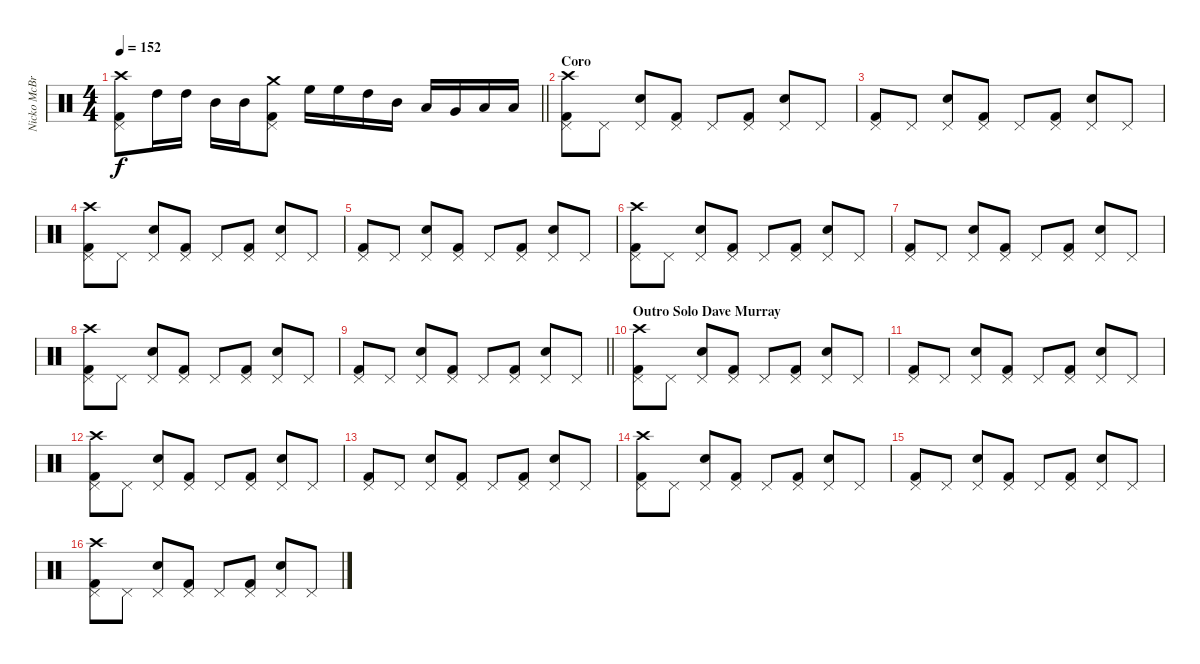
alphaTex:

\track ("Nicko McBrain" "Nicko McBr") {instrument percussion}
\staff {score}
\articulation defaults
\ts (4 4)
\tempo 152
\clef neutral
\barLineRight lightlight
\ks c
("Kick (hit) 2" "Pedal Hi-Hat (hit)" "Crash high (hit)").8{dy f} "High Tom (hit)".16 "High Tom (hit)".16 "Mid Tom (hit)".16 "Mid Tom (hit)".16 ("Kick (hit) 2" "Pedal Hi-Hat (hit)" "Crash medium (hit)").8 "High Floor Tom (hit)".16 "High Floor Tom (hit)".16 "High Tom (hit)".16 "Mid Tom (hit)".16 "Low Tom (hit)".16 "Very Low Tom (hit)".16 "Low Floor Tom (hit)".16 "Low Floor Tom (hit)".16 |
\section ("" "Coro")
("Kick (hit) 2" "Pedal Hi-Hat (hit)" "Crash high (hit)").8 "Pedal Hi-Hat (hit)".8 ("Snare (hit) 2" "Pedal Hi-Hat (hit)").8 ("Kick (hit) 2" "Pedal Hi-Hat (hit)").8 "Pedal Hi-Hat (hit)".8 ("Kick (hit) 2" "Pedal Hi-Hat (hit)").8 ("Snare (hit) 2" "Pedal Hi-Hat (hit)").8 "Pedal Hi-Hat (hit)".8 |
("Kick (hit) 2" "Pedal Hi-Hat (hit)").8 "Pedal Hi-Hat (hit)".8 ("Snare (hit) 2" "Pedal Hi-Hat (hit)").8 ("Kick (hit) 2" "Pedal Hi-Hat (hit)").8 "Pedal Hi-Hat (hit)".8 ("Kick (hit) 2" "Pedal Hi-Hat (hit)").8 ("Snare (hit) 2" "Pedal Hi-Hat (hit)").8 "Pedal Hi-Hat (hit)".8 |
("Kick (hit) 2" "Pedal Hi-Hat (hit)" "Crash high (hit)").8 "Pedal Hi-Hat (hit)".8 ("Snare (hit) 2" "Pedal Hi-Hat (hit)").8 ("Kick (hit) 2" "Pedal Hi-Hat (hit)").8 "Pedal Hi-Hat (hit)".8 ("Kick (hit) 2" "Pedal Hi-Hat (hit)").8 ("Snare (hit) 2" "Pedal Hi-Hat (hit)").8 "Pedal Hi-Hat (hit)".8 |
("Kick (hit) 2" "Pedal Hi-Hat (hit)").8 "Pedal Hi-Hat (hit)".8 ("Snare (hit) 2" "Pedal Hi-Hat (hit)").8 ("Kick (hit) 2" "Pedal Hi-Hat (hit)").8 "Pedal Hi-Hat (hit)".8 ("Kick (hit) 2" "Pedal Hi-Hat (hit)").8 ("Snare (hit) 2" "Pedal Hi-Hat (hit)").8 "Pedal Hi-Hat (hit)".8 |
("Kick (hit) 2" "Pedal Hi-Hat (hit)" "Crash high (hit)").8 "Pedal Hi-Hat (hit)".8 ("Snare (hit) 2" "Pedal Hi-Hat (hit)").8 ("Kick (hit) 2" "Pedal Hi-Hat (hit)").8 "Pedal Hi-Hat (hit)".8 ("Kick (hit) 2" "Pedal Hi-Hat (hit)").8 ("Snare (hit) 2" "Pedal Hi-Hat (hit)").8 "Pedal Hi-Hat (hit)".8 |
("Kick (hit) 2" "Pedal Hi-Hat (hit)").8 "Pedal Hi-Hat (hit)".8 ("Snare (hit) 2" "Pedal Hi-Hat (hit)").8 ("Kick (hit) 2" "Pedal Hi-Hat (hit)").8 "Pedal Hi-Hat (hit)".8 ("Kick (hit) 2" "Pedal Hi-Hat (hit)").8 ("Snare (hit) 2" "Pedal Hi-Hat (hit)").8 "Pedal Hi-Hat (hit)".8 |
("Kick (hit) 2" "Pedal Hi-Hat (hit)" "Crash high (hit)").8 "Pedal Hi-Hat (hit)".8 ("Snare (hit) 2" "Pedal Hi-Hat (hit)").8 ("Kick (hit) 2" "Pedal Hi-Hat (hit)").8 "Pedal Hi-Hat (hit)".8 ("Kick (hit) 2" "Pedal Hi-Hat (hit)").8 ("Snare (hit) 2" "Pedal Hi-Hat (hit)").8 "Pedal Hi-Hat (hit)".8 |
\barLineRight lightlight
("Kick (hit) 2" "Pedal Hi-Hat (hit)").8 "Pedal Hi-Hat (hit)".8 ("Snare (hit) 2" "Pedal Hi-Hat (hit)").8 ("Kick (hit) 2" "Pedal Hi-Hat (hit)").8 "Pedal Hi-Hat (hit)".8 ("Kick (hit) 2" "Pedal Hi-Hat (hit)").8 ("Snare (hit) 2" "Pedal Hi-Hat (hit)").8 "Pedal Hi-Hat (hit)".8 |
\section ("" "Outro Solo Dave Murray")
("Kick (hit) 2" "Pedal Hi-Hat (hit)" "Crash high (hit)").8 "Pedal Hi-Hat (hit)".8 ("Snare (hit) 2" "Pedal Hi-Hat (hit)").8 ("Kick (hit) 2" "Pedal Hi-Hat (hit)").8 "Pedal Hi-Hat (hit)".8 ("Kick (hit) 2" "Pedal Hi-Hat (hit)").8 ("Snare (hit) 2" "Pedal Hi-Hat (hit)").8 "Pedal Hi-Hat (hit)".8 |
("Kick (hit) 2" "Pedal Hi-Hat (hit)").8 "Pedal Hi-Hat (hit)".8 ("Snare (hit) 2" "Pedal Hi-Hat (hit)").8 ("Kick (hit) 2" "Pedal Hi-Hat (hit)").8 "Pedal Hi-Hat (hit)".8 ("Kick (hit) 2" "Pedal Hi-Hat (hit)").8 ("Snare (hit) 2" "Pedal Hi-Hat (hit)").8 "Pedal Hi-Hat (hit)".8 |
("Kick (hit) 2" "Pedal Hi-Hat (hit)" "Crash high (hit)").8 "Pedal Hi-Hat (hit)".8 ("Snare (hit) 2" "Pedal Hi-Hat (hit)").8 ("Kick (hit) 2" "Pedal Hi-Hat (hit)").8 "Pedal Hi-Hat (hit)".8 ("Kick (hit) 2" "Pedal Hi-Hat (hit)").8 ("Snare (hit) 2" "Pedal Hi-Hat (hit)").8 "Pedal Hi-Hat (hit)".8 |
("Kick (hit) 2" "Pedal Hi-Hat (hit)").8 "Pedal Hi-Hat (hit)".8 ("Snare (hit) 2" "Pedal Hi-Hat (hit)").8 ("Kick (hit) 2" "Pedal Hi-Hat (hit)").8 "Pedal Hi-Hat (hit)".8 ("Kick (hit) 2" "Pedal Hi-Hat (hit)").8 ("Snare (hit) 2" "Pedal Hi-Hat (hit)").8 "Pedal Hi-Hat (hit)".8 |
("Kick (hit) 2" "Pedal Hi-Hat (hit)" "Crash high (hit)").8 "Pedal Hi-Hat (hit)".8 ("Snare (hit) 2" "Pedal Hi-Hat (hit)").8 ("Kick (hit) 2" "Pedal Hi-Hat (hit)").8 "Pedal Hi-Hat (hit)".8 ("Kick (hit) 2" "Pedal Hi-Hat (hit)").8 ("Snare (hit) 2" "Pedal Hi-Hat (hit)").8 "Pedal Hi-Hat (hit)".8 |
("Kick (hit) 2" "Pedal Hi-Hat (hit)").8 "Pedal Hi-Hat (hit)".8 ("Snare (hit) 2" "Pedal Hi-Hat (hit)").8 ("Kick (hit) 2" "Pedal Hi-Hat (hit)").8 "Pedal Hi-Hat (hit)".8 ("Kick (hit) 2" "Pedal Hi-Hat (hit)").8 ("Snare (hit) 2" "Pedal Hi-Hat (hit)").8 "Pedal Hi-Hat (hit)".8 |
("Kick (hit) 2" "Pedal Hi-Hat (hit)" "Crash high (hit)").8 "Pedal Hi-Hat (hit)".8 ("Snare (hit) 2" "Pedal Hi-Hat (hit)").8 ("Kick (hit) 2" "Pedal Hi-Hat (hit)").8 "Pedal Hi-Hat (hit)".8 ("Kick (hit) 2" "Pedal Hi-Hat (hit)").8 ("Snare (hit) 2" "Pedal Hi-Hat (hit)").8 "Pedal Hi-Hat (hit)".8
